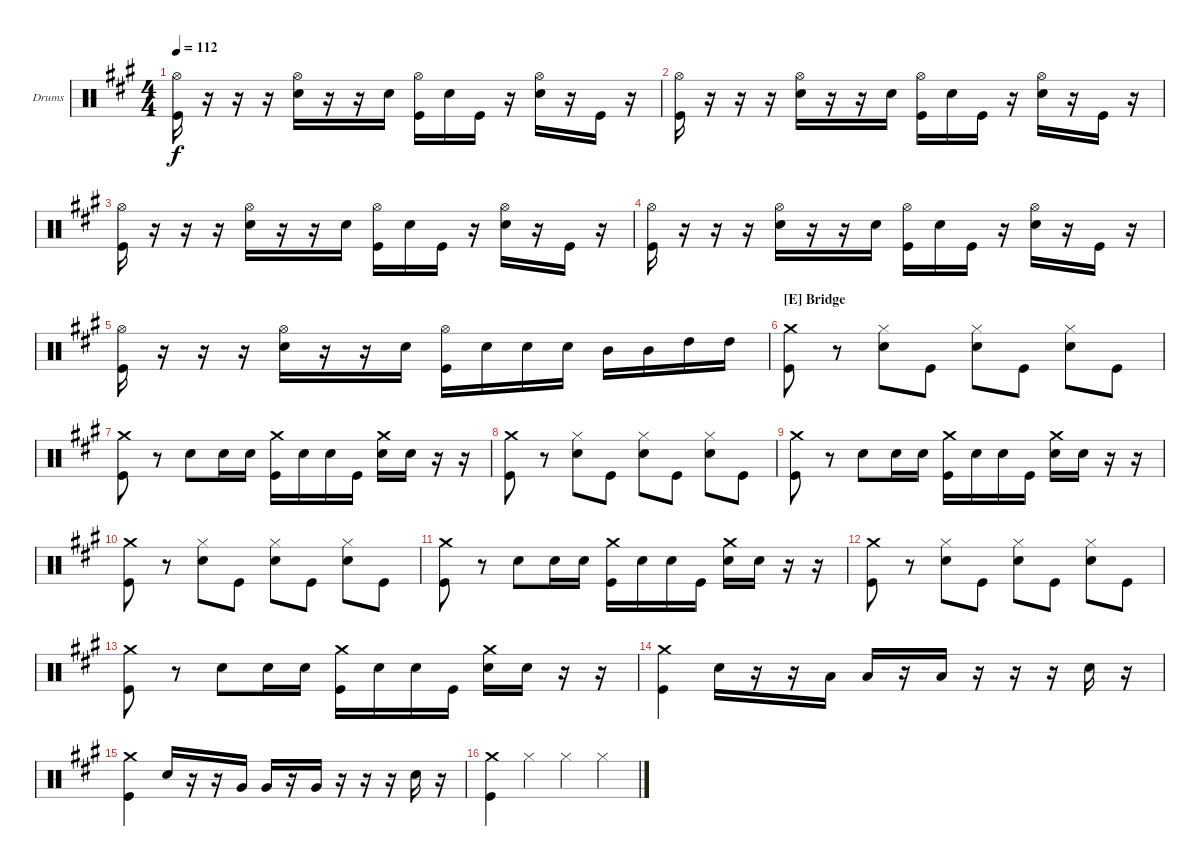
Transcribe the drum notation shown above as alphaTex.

\defaultSystemsLayout 4
\bracketExtendMode groupsimilarinstruments
\firstSystemTrackNameOrientation horizontal
\otherSystemsTrackNameOrientation horizontal
\track ("Drumkit" "Drums") {instrument percussion}
\staff {score}
\articulation defaults
\ts (4 4)
\tempo 112
\clef neutral
\scale
1.05801
\ks a
("Hi-Hat (open)" "Kick (hit)").16{dy f} r.16 r.16 r.16 ("Hi-Hat (open)" "Snare (hit) 2").16 r.16 r.16 "Snare (hit) 2".16 ("Hi-Hat (open)" "Kick (hit)").16 "Snare (hit) 2".16 "Kick (hit)".16 r.16 ("Hi-Hat (open)" "Snare (hit) 2").16 r.16 "Kick (hit)".16 r.16 |
\scale
0.941992 ("Hi-Hat (open)" "Kick (hit)").16 r.16 r.16 r.16 ("Hi-Hat (open)" "Snare (hit) 2").16 r.16 r.16 "Snare (hit) 2".16 ("Hi-Hat (open)" "Kick (hit)").16 "Snare (hit) 2".16 "Kick (hit)".16 r.16 ("Hi-Hat (open)" "Snare (hit) 2").16 r.16 "Kick (hit)".16 r.16 |
\scale
1.05801 ("Hi-Hat (open)" "Kick (hit)").16 r.16 r.16 r.16 ("Hi-Hat (open)" "Snare (hit) 2").16 r.16 r.16 "Snare (hit) 2".16 ("Hi-Hat (open)" "Kick (hit)").16 "Snare (hit) 2".16 "Kick (hit)".16 r.16 ("Hi-Hat (open)" "Snare (hit) 2").16 r.16 "Kick (hit)".16 r.16 |
\scale
0.941992 ("Hi-Hat (open)" "Kick (hit)").16 r.16 r.16 r.16 ("Hi-Hat (open)" "Snare (hit) 2").16 r.16 r.16 "Snare (hit) 2".16 ("Hi-Hat (open)" "Kick (hit)").16 "Snare (hit) 2".16 "Kick (hit)".16 r.16 ("Hi-Hat (open)" "Snare (hit) 2").16 r.16 "Kick (hit)".16 r.16 |
\scale
1.05801 ("Hi-Hat (open)" "Kick (hit)").16 r.16 r.16 r.16 ("Hi-Hat (open)" "Snare (hit) 2").16 r.16 r.16 "Snare (hit) 2".16 ("Hi-Hat (open)" "Kick (hit)").16 "Snare (hit) 2".16 "Snare (hit) 2".16 "Snare (hit) 2".16 "Mid Tom (hit)".16 "Mid Tom (hit)".16 "High Tom (hit)".16 "High Tom (hit)".16 |
\section ("E" "Bridge")
\scale
0.941992 ("Crash medium (hit)" "Kick (hit)").8 r.8 ("Hi-Hat (closed)" "Snare (hit) 2").8 "Kick (hit)".8 ("Hi-Hat (closed)" "Snare (hit) 2").8 "Kick (hit)".8 ("Hi-Hat (closed)" "Snare (hit) 2").8 "Kick (hit)".8 |
\scale
1.05801 ("Crash medium (hit)" "Kick (hit)").8 r.8 "Snare (hit) 2".8 "Snare (hit) 2".16 "Snare (hit) 2".16 ("Crash medium (hit)" "Kick (hit)").16 "Snare (hit) 2".16 "Snare (hit) 2".16 "Kick (hit)".16 ("Crash medium (hit)" "Snare (hit) 2").16 "Snare (hit) 2".16 r.16 r.16 |
\scale
0.941992 ("Crash medium (hit)" "Kick (hit)").8 r.8 ("Hi-Hat (closed)" "Snare (hit) 2").8 "Kick (hit)".8 ("Hi-Hat (closed)" "Snare (hit) 2").8 "Kick (hit)".8 ("Hi-Hat (closed)" "Snare (hit) 2").8 "Kick (hit)".8 |
\scale
1.05801 ("Crash medium (hit)" "Kick (hit)").8 r.8 "Snare (hit) 2".8 "Snare (hit) 2".16 "Snare (hit) 2".16 ("Crash medium (hit)" "Kick (hit)").16 "Snare (hit) 2".16 "Snare (hit) 2".16 "Kick (hit)".16 ("Crash medium (hit)" "Snare (hit) 2").16 "Snare (hit) 2".16 r.16 r.16 |
\scale
0.941992 ("Crash medium (hit)" "Kick (hit)").8 r.8 ("Hi-Hat (closed)" "Snare (hit) 2").8 "Kick (hit)".8 ("Hi-Hat (closed)" "Snare (hit) 2").8 "Kick (hit)".8 ("Hi-Hat (closed)" "Snare (hit) 2").8 "Kick (hit)".8 |
\scale
1.05801 ("Crash medium (hit)" "Kick (hit)").8 r.8 "Snare (hit) 2".8 "Snare (hit) 2".16 "Snare (hit) 2".16 ("Crash medium (hit)" "Kick (hit)").16 "Snare (hit) 2".16 "Snare (hit) 2".16 "Kick (hit)".16 ("Crash medium (hit)" "Snare (hit) 2").16 "Snare (hit) 2".16 r.16 r.16 |
\scale
0.941992 ("Crash medium (hit)" "Kick (hit)").8 r.8 ("Hi-Hat (closed)" "Snare (hit) 2").8 "Kick (hit)".8 ("Hi-Hat (closed)" "Snare (hit) 2").8 "Kick (hit)".8 ("Hi-Hat (closed)" "Snare (hit) 2").8 "Kick (hit)".8 |
\scale
1.05801 ("Crash medium (hit)" "Kick (hit)").8 r.8 "Snare (hit) 2".8 "Snare (hit) 2".16 "Snare (hit) 2".16 ("Crash medium (hit)" "Kick (hit)").16 "Snare (hit) 2".16 "Snare (hit) 2".16 "Kick (hit)".16 ("Crash medium (hit)" "Snare (hit) 2").16 "Snare (hit) 2".16 r.16 r.16 |
\scale
0.941992 ("Crash medium (hit)" "Kick (hit)").4 "Snare (hit) 2".16 r.16 r.16 "Low Tom (hit)".16 "Low Tom (hit)".16 r.16 "Low Tom (hit)".16 r.16 r.16 r.16 "Snare (hit) 2".16 r.16 |
\scale
1.05801 ("Crash medium (hit)" "Kick (hit)").4 "Snare (hit) 2".16 r.16 r.16 "Very Low Tom (hit)".16 "Very Low Tom (hit)".16 r.16 "Very Low Tom (hit)".16 r.16 r.16 r.16 "Snare (hit) 2".16 r.16 |
\scale
0.941992 ("Crash medium (hit)" "Kick (hit)").4 "Hi-Hat (closed)".4 "Hi-Hat (closed)".4 "Hi-Hat (closed)".4
